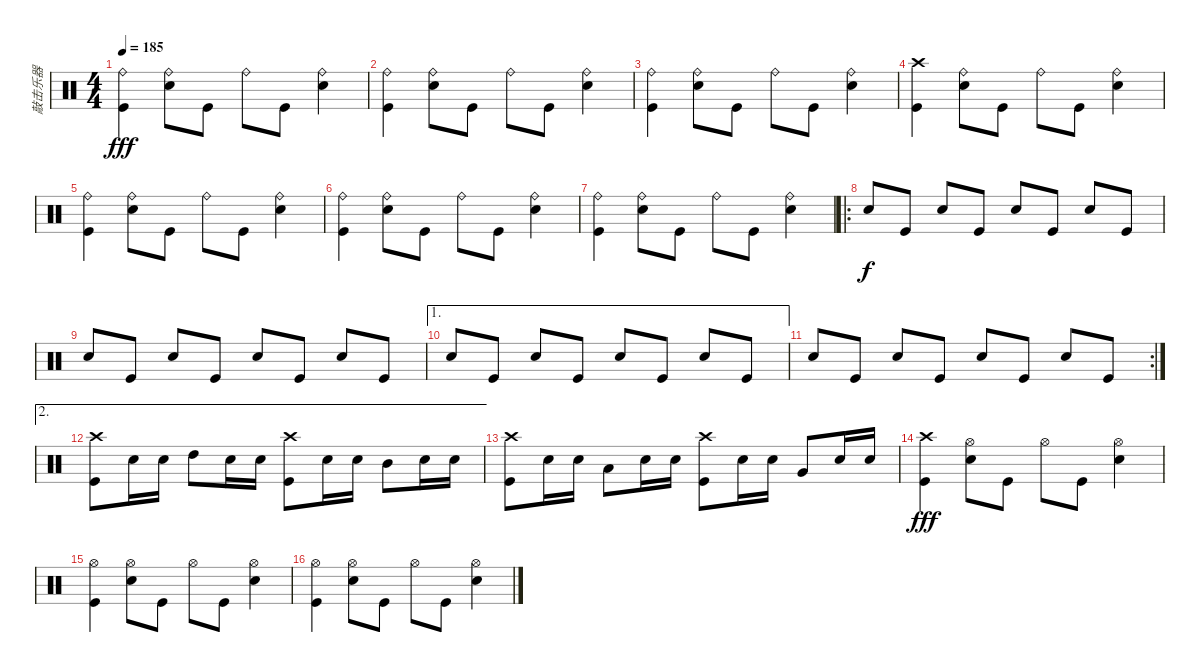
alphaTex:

\track ("敲击乐器" "敲击乐器") {instrument percussion}
\staff {score}
\articulation defaults
\ts (4 4)
\tempo 185
\clef neutral
\ks c
("Ride (bell)" "Kick (hit)").4{dy fff} ("Ride (bell)" "Snare (hit) 2").8 "Kick (hit)".8 "Ride (bell)".8 "Kick (hit)".8 ("Ride (bell)" "Snare (hit) 2").4 |
("Ride (bell)" "Kick (hit)").4 ("Ride (bell)" "Snare (hit) 2").8 "Kick (hit)".8 "Ride (bell)".8 "Kick (hit)".8 ("Ride (bell)" "Snare (hit) 2").4 |
("Ride (bell)" "Kick (hit)").4 ("Ride (bell)" "Snare (hit) 2").8 "Kick (hit)".8 "Ride (bell)".8 "Kick (hit)".8 ("Ride (bell)" "Snare (hit) 2").4 |
("Crash high (hit)" "Kick (hit)").4 ("Ride (bell)" "Snare (hit) 2").8 "Kick (hit)".8 "Ride (bell)".8 "Kick (hit)".8 ("Ride (bell)" "Snare (hit) 2").4 |
("Ride (bell)" "Kick (hit)").4 ("Ride (bell)" "Snare (hit) 2").8 "Kick (hit)".8 "Ride (bell)".8 "Kick (hit)".8 ("Ride (bell)" "Snare (hit) 2").4 |
("Ride (bell)" "Kick (hit)").4 ("Ride (bell)" "Snare (hit) 2").8 "Kick (hit)".8 "Ride (bell)".8 "Kick (hit)".8 ("Ride (bell)" "Snare (hit) 2").4 |
("Ride (bell)" "Kick (hit)").4 ("Ride (bell)" "Snare (hit) 2").8 "Kick (hit)".8 "Ride (bell)".8 "Kick (hit)".8 ("Ride (bell)" "Snare (hit) 2").4 |
\ro "Snare (hit) 2".8{dy f} "Kick (hit)".8 "Snare (hit) 2".8 "Kick (hit)".8 "Snare (hit) 2".8 "Kick (hit)".8 "Snare (hit) 2".8 "Kick (hit)".8
|
"Snare (hit) 2".8 "Kick (hit)".8 "Snare (hit) 2".8 "Kick (hit)".8 "Snare (hit) 2".8 "Kick (hit)".8 "Snare (hit) 2".8 "Kick (hit)".8 |
\ae 1 "Snare (hit) 2".8 "Kick (hit)".8 "Snare (hit) 2".8 "Kick (hit)".8 "Snare (hit) 2".8 "Kick (hit)".8 "Snare (hit) 2".8 "Kick (hit)".8
|
\rc 2 "Snare (hit) 2".8 "Kick (hit)".8 "Snare (hit) 2".8 "Kick (hit)".8 "Snare (hit) 2".8 "Kick (hit)".8 "Snare (hit) 2".8 "Kick (hit)".8
|
\ae 2
("Crash high (hit)" "Kick (hit)").8 "Snare (hit) 2".16 "Snare (hit) 2".16 "High Tom (hit)".8 "Snare (hit) 2".16 "Snare (hit) 2".16 ("Crash high (hit)" "Kick (hit)").8 "Snare (hit) 2".16 "Snare (hit) 2".16 "Mid Tom (hit)".8 "Snare (hit) 2".16 "Snare (hit) 2".16 |
("Crash high (hit)" "Kick (hit)").8 "Snare (hit) 2".16 "Snare (hit) 2".16 "Low Tom (hit)".8 "Snare (hit) 2".16 "Snare (hit) 2".16 ("Crash high (hit)" "Kick (hit)").8 "Snare (hit) 2".16 "Snare (hit) 2".16 "Very Low Tom (hit)".8 "Snare (hit) 2".16 "Snare (hit) 2".16 |
("Crash high (hit)" "Kick (hit)").4{dy fff} ("Hi-Hat (open)" "Snare (hit) 2").8 "Kick (hit)".8 "Hi-Hat (open)".8 "Kick (hit)".8 ("Hi-Hat (open)" "Snare (hit) 2").4 |
("Hi-Hat (open)" "Kick (hit)").4 ("Hi-Hat (open)" "Snare (hit) 2").8 "Kick (hit)".8 "Hi-Hat (open)".8 "Kick (hit)".8 ("Hi-Hat (open)" "Snare (hit) 2").4 |
("Hi-Hat (open)" "Kick (hit)").4 ("Hi-Hat (open)" "Snare (hit) 2").8 "Kick (hit)".8 "Hi-Hat (open)".8 "Kick (hit)".8 ("Hi-Hat (open)" "Snare (hit) 2").4
